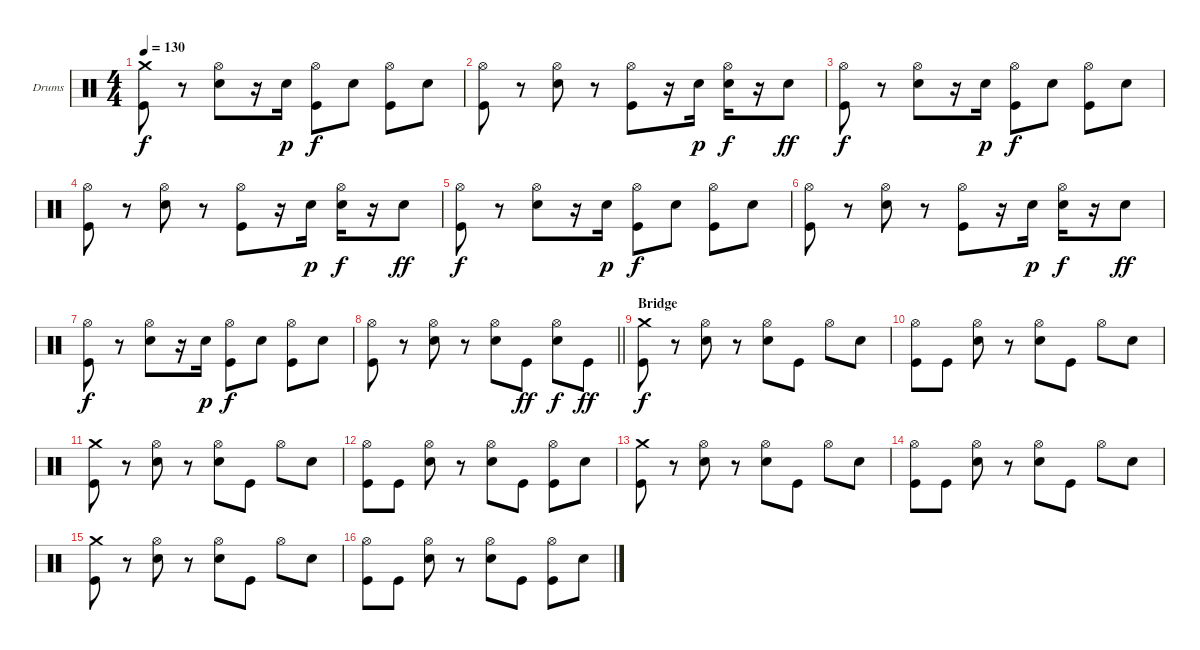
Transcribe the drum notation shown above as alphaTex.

\bracketExtendMode groupsimilarinstruments
\firstSystemTrackNameOrientation horizontal
\otherSystemsTrackNameOrientation horizontal
\track ("Drumkit" "Drums") {instrument percussion}
\staff {score}
\articulation defaults
\ts (4 4)
\tempo 130
\clef neutral
\ks c
("Crash medium (hit)" "Kick (hit)").8{dy f} r.8 ("Hi-Hat (open)" "Snare (hit) 2").8 r.16 "Snare (hit) 2".16{dy p} ("Hi-Hat (open)" "Kick (hit)").8{dy f} "Snare (hit) 2".8 ("Hi-Hat (open)" "Kick (hit)").8 "Snare (hit) 2".8 |
("Hi-Hat (open)" "Kick (hit)").8 r.8 ("Hi-Hat (open)" "Snare (hit) 2").8 r.8 ("Hi-Hat (open)" "Kick (hit)").8 r.16 "Snare (hit) 2".16{dy p} ("Hi-Hat (open)" "Snare (hit) 2").16{dy f} r.16 "Snare (hit) 2".8{dy ff} |
("Hi-Hat (open)" "Kick (hit)").8{dy f} r.8 ("Hi-Hat (open)" "Snare (hit) 2").8 r.16 "Snare (hit) 2".16{dy p} ("Hi-Hat (open)" "Kick (hit)").8{dy f} "Snare (hit) 2".8 ("Hi-Hat (open)" "Kick (hit)").8 "Snare (hit) 2".8 |
("Hi-Hat (open)" "Kick (hit)").8 r.8 ("Hi-Hat (open)" "Snare (hit) 2").8 r.8 ("Hi-Hat (open)" "Kick (hit)").8 r.16 "Snare (hit) 2".16{dy p} ("Hi-Hat (open)" "Snare (hit) 2").16{dy f} r.16 "Snare (hit) 2".8{dy ff} |
("Hi-Hat (open)" "Kick (hit)").8{dy f} r.8 ("Hi-Hat (open)" "Snare (hit) 2").8 r.16 "Snare (hit) 2".16{dy p} ("Hi-Hat (open)" "Kick (hit)").8{dy f} "Snare (hit) 2".8 ("Hi-Hat (open)" "Kick (hit)").8 "Snare (hit) 2".8 |
("Hi-Hat (open)" "Kick (hit)").8 r.8 ("Hi-Hat (open)" "Snare (hit) 2").8 r.8 ("Hi-Hat (open)" "Kick (hit)").8 r.16 "Snare (hit) 2".16{dy p} ("Hi-Hat (open)" "Snare (hit) 2").16{dy f} r.16 "Snare (hit) 2".8{dy ff} |
("Hi-Hat (open)" "Kick (hit)").8{dy f} r.8 ("Hi-Hat (open)" "Snare (hit) 2").8 r.16 "Snare (hit) 2".16{dy p} ("Hi-Hat (open)" "Kick (hit)").8{dy f} "Snare (hit) 2".8 ("Hi-Hat (open)" "Kick (hit)").8 "Snare (hit) 2".8 |
\barLineRight lightlight
("Hi-Hat (open)" "Kick (hit)").8 r.8 ("Hi-Hat (open)" "Snare (hit) 2").8 r.8 ("Hi-Hat (open)" "Snare (hit) 2").8 "Kick (hit)".8{dy ff} ("Hi-Hat (open)" "Snare (hit) 2").8{dy f} "Kick (hit)".8{dy ff} |
\section ("" "Bridge")
("Crash medium (hit)" "Kick (hit)").8{dy f} r.8 ("Hi-Hat (open)" "Snare (hit) 2").8 r.8 ("Hi-Hat (open)" "Snare (hit) 2").8 "Kick (hit)".8 "Hi-Hat (open)".8 "Snare (hit) 2".8 |
("Hi-Hat (open)" "Kick (hit)").8 "Kick (hit)".8 ("Hi-Hat (open)" "Snare (hit) 2").8 r.8 ("Hi-Hat (open)" "Snare (hit) 2").8 "Kick (hit)".8 "Hi-Hat (open)".8 "Snare (hit) 2".8 |
("Crash medium (hit)" "Kick (hit)").8 r.8 ("Hi-Hat (open)" "Snare (hit) 2").8 r.8 ("Hi-Hat (open)" "Snare (hit) 2").8 "Kick (hit)".8 "Hi-Hat (open)".8 "Snare (hit) 2".8 |
("Hi-Hat (open)" "Kick (hit)").8 "Kick (hit)".8 ("Hi-Hat (open)" "Snare (hit) 2").8 r.8 ("Hi-Hat (open)" "Snare (hit) 2").8 "Kick (hit)".8 ("Hi-Hat (open)" "Kick (hit)").8 "Snare (hit) 2".8 |
("Crash medium (hit)" "Kick (hit)").8 r.8 ("Hi-Hat (open)" "Snare (hit) 2").8 r.8 ("Hi-Hat (open)" "Snare (hit) 2").8 "Kick (hit)".8 "Hi-Hat (open)".8 "Snare (hit) 2".8 |
("Hi-Hat (open)" "Kick (hit)").8 "Kick (hit)".8 ("Hi-Hat (open)" "Snare (hit) 2").8 r.8 ("Hi-Hat (open)" "Snare (hit) 2").8 "Kick (hit)".8 "Hi-Hat (open)".8 "Snare (hit) 2".8 |
("Crash medium (hit)" "Kick (hit)").8 r.8 ("Hi-Hat (open)" "Snare (hit) 2").8 r.8 ("Hi-Hat (open)" "Snare (hit) 2").8 "Kick (hit)".8 "Hi-Hat (open)".8 "Snare (hit) 2".8 |
("Hi-Hat (open)" "Kick (hit)").8 "Kick (hit)".8 ("Hi-Hat (open)" "Snare (hit) 2").8 r.8 ("Hi-Hat (open)" "Snare (hit) 2").8 "Kick (hit)".8 ("Hi-Hat (open)" "Kick (hit)").8 "Snare (hit) 2".8
